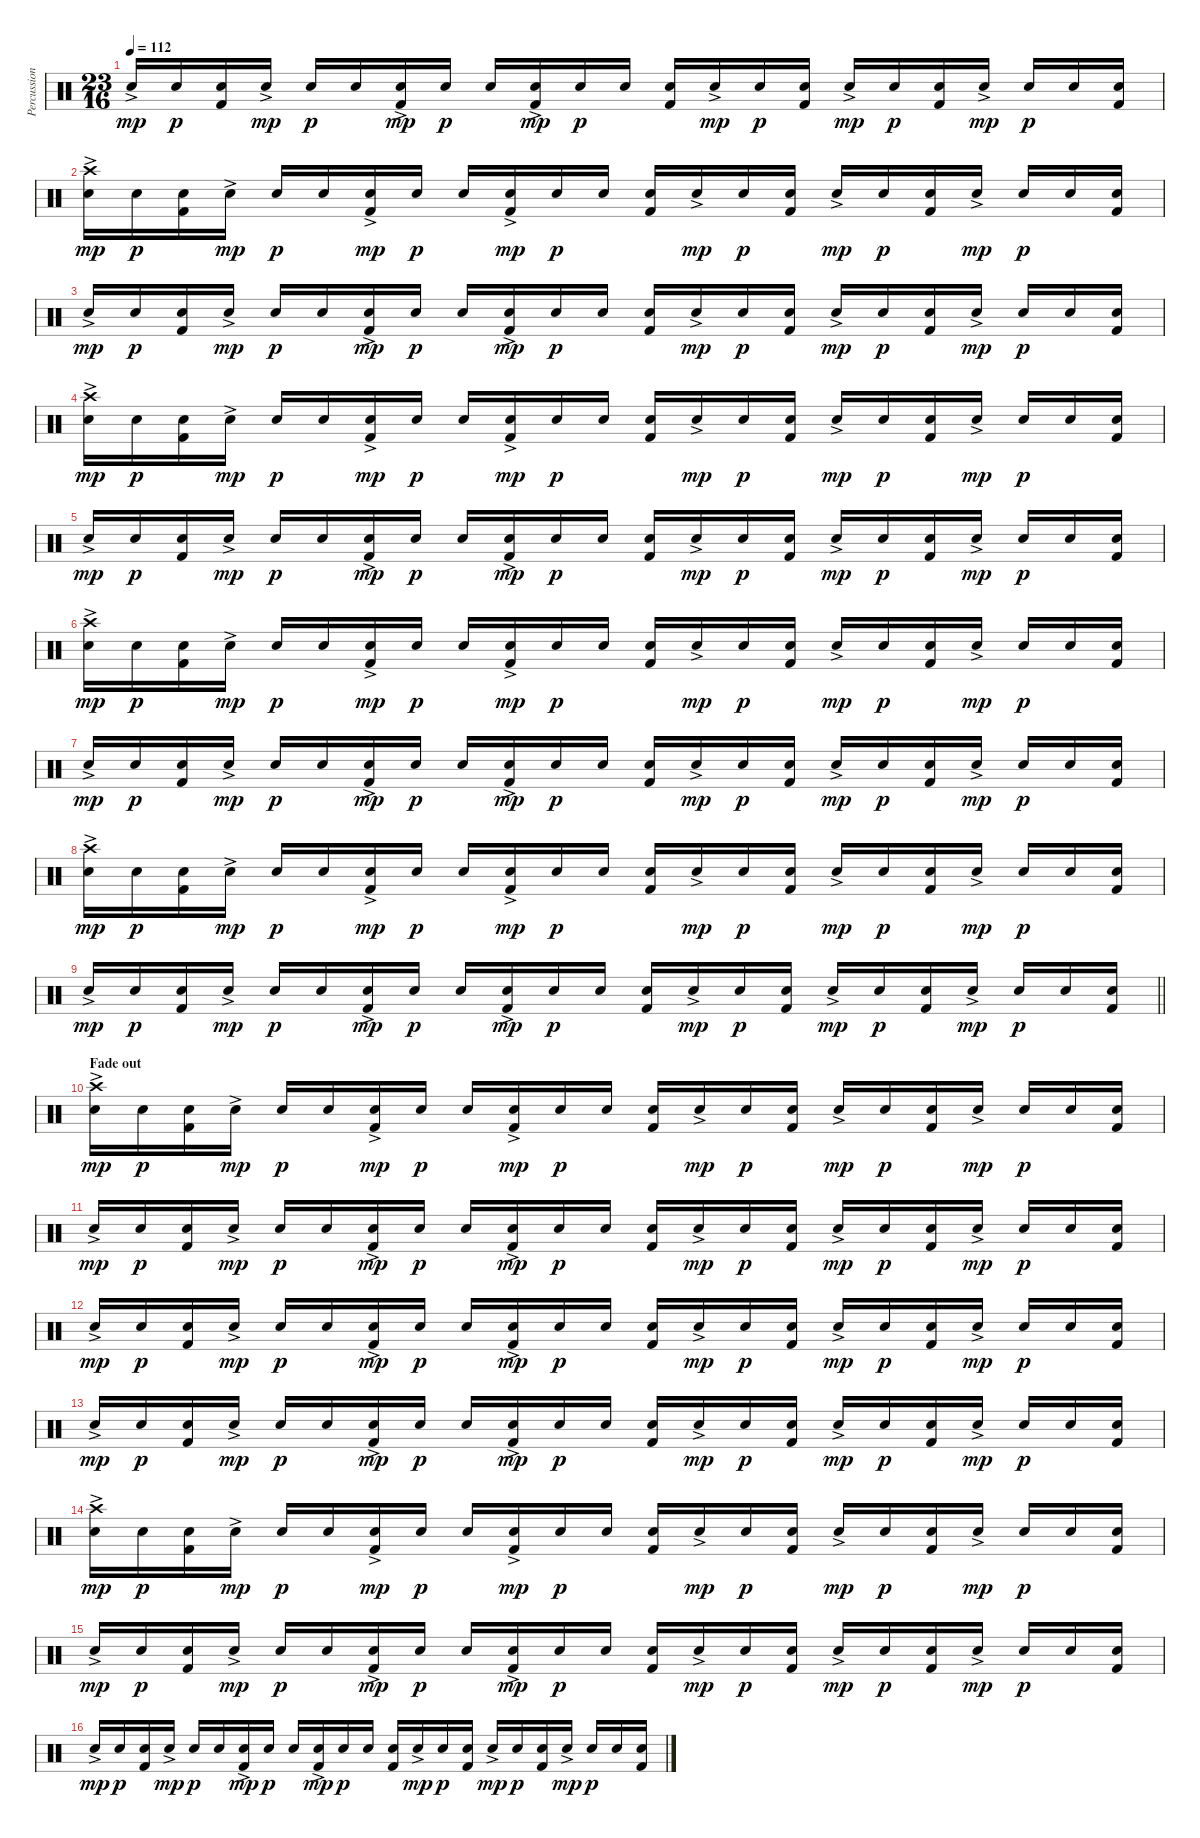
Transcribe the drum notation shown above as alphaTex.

\track ("Percussion" "Percussion") {instrument percussion}
\staff {score}
\articulation defaults
\ts (23 16)
\tempo 112
\clef neutral
\ks c "Snare (hit) 2"{ac}.16{dy mp} "Snare (hit) 2".16{dy p}
("Kick (hit) 2" "Snare (hit) 2").16 "Snare (hit) 2"{ac}.16{dy mp} "Snare (hit) 2".16{dy p} "Snare (hit) 2".16 ("Kick (hit) 2" "Snare (hit) 2"{ac}).16{dy mp} "Snare (hit) 2".16{dy p} "Snare (hit) 2".16 ("Kick (hit) 2" "Snare (hit) 2"{ac}).16{dy mp} "Snare (hit) 2".16{dy p} "Snare (hit) 2".16 ("Kick (hit) 2" "Snare (hit) 2").16 "Snare (hit) 2"{ac}.16{dy mp} "Snare (hit) 2".16{dy p} ("Kick (hit) 2" "Snare (hit) 2").16 "Snare (hit) 2"{ac}.16{dy mp} "Snare (hit) 2".16{dy p} ("Kick (hit) 2" "Snare (hit) 2").16 "Snare (hit) 2"{ac}.16{dy mp} "Snare (hit) 2".16{dy p} "Snare (hit) 2".16 ("Kick (hit) 2" "Snare (hit) 2").16 |
("Crash high (hit)" "Snare (hit) 2"{ac}).16{dy mp} "Snare (hit) 2".16{dy p} ("Kick (hit) 2" "Snare (hit) 2").16 "Snare (hit) 2"{ac}.16{dy mp} "Snare (hit) 2".16{dy p} "Snare (hit) 2".16 ("Kick (hit) 2" "Snare (hit) 2"{ac}).16{dy mp} "Snare (hit) 2".16{dy p} "Snare (hit) 2".16 ("Kick (hit) 2" "Snare (hit) 2"{ac}).16{dy mp} "Snare (hit) 2".16{dy p} "Snare (hit) 2".16 ("Kick (hit) 2" "Snare (hit) 2").16 "Snare (hit) 2"{ac}.16{dy mp} "Snare (hit) 2".16{dy p} ("Kick (hit) 2" "Snare (hit) 2").16 "Snare (hit) 2"{ac}.16{dy mp} "Snare (hit) 2".16{dy p} ("Kick (hit) 2" "Snare (hit) 2").16 "Snare (hit) 2"{ac}.16{dy mp} "Snare (hit) 2".16{dy p} "Snare (hit) 2".16 ("Kick (hit) 2" "Snare (hit) 2").16 |
"Snare (hit) 2"{ac}.16{dy mp} "Snare (hit) 2".16{dy p} ("Kick (hit) 2" "Snare (hit) 2").16 "Snare (hit) 2"{ac}.16{dy mp} "Snare (hit) 2".16{dy p} "Snare (hit) 2".16 ("Kick (hit) 2" "Snare (hit) 2"{ac}).16{dy mp} "Snare (hit) 2".16{dy p} "Snare (hit) 2".16 ("Kick (hit) 2" "Snare (hit) 2"{ac}).16{dy mp} "Snare (hit) 2".16{dy p} "Snare (hit) 2".16 ("Kick (hit) 2" "Snare (hit) 2").16 "Snare (hit) 2"{ac}.16{dy mp} "Snare (hit) 2".16{dy p} ("Kick (hit) 2" "Snare (hit) 2").16 "Snare (hit) 2"{ac}.16{dy mp} "Snare (hit) 2".16{dy p} ("Kick (hit) 2" "Snare (hit) 2").16 "Snare (hit) 2"{ac}.16{dy mp} "Snare (hit) 2".16{dy p} "Snare (hit) 2".16 ("Kick (hit) 2" "Snare (hit) 2").16 |
("Crash high (hit)" "Snare (hit) 2"{ac}).16{dy mp} "Snare (hit) 2".16{dy p} ("Kick (hit) 2" "Snare (hit) 2").16 "Snare (hit) 2"{ac}.16{dy mp} "Snare (hit) 2".16{dy p} "Snare (hit) 2".16 ("Kick (hit) 2" "Snare (hit) 2"{ac}).16{dy mp} "Snare (hit) 2".16{dy p} "Snare (hit) 2".16 ("Kick (hit) 2" "Snare (hit) 2"{ac}).16{dy mp} "Snare (hit) 2".16{dy p} "Snare (hit) 2".16 ("Kick (hit) 2" "Snare (hit) 2").16 "Snare (hit) 2"{ac}.16{dy mp} "Snare (hit) 2".16{dy p} ("Kick (hit) 2" "Snare (hit) 2").16 "Snare (hit) 2"{ac}.16{dy mp} "Snare (hit) 2".16{dy p} ("Kick (hit) 2" "Snare (hit) 2").16 "Snare (hit) 2"{ac}.16{dy mp} "Snare (hit) 2".16{dy p} "Snare (hit) 2".16 ("Kick (hit) 2" "Snare (hit) 2").16 |
"Snare (hit) 2"{ac}.16{dy mp} "Snare (hit) 2".16{dy p} ("Kick (hit) 2" "Snare (hit) 2").16 "Snare (hit) 2"{ac}.16{dy mp} "Snare (hit) 2".16{dy p} "Snare (hit) 2".16 ("Kick (hit) 2" "Snare (hit) 2"{ac}).16{dy mp} "Snare (hit) 2".16{dy p} "Snare (hit) 2".16 ("Kick (hit) 2" "Snare (hit) 2"{ac}).16{dy mp} "Snare (hit) 2".16{dy p} "Snare (hit) 2".16 ("Kick (hit) 2" "Snare (hit) 2").16 "Snare (hit) 2"{ac}.16{dy mp} "Snare (hit) 2".16{dy p} ("Kick (hit) 2" "Snare (hit) 2").16 "Snare (hit) 2"{ac}.16{dy mp} "Snare (hit) 2".16{dy p} ("Kick (hit) 2" "Snare (hit) 2").16 "Snare (hit) 2"{ac}.16{dy mp} "Snare (hit) 2".16{dy p} "Snare (hit) 2".16 ("Kick (hit) 2" "Snare (hit) 2").16 |
("Crash high (hit)" "Snare (hit) 2"{ac}).16{dy mp} "Snare (hit) 2".16{dy p} ("Kick (hit) 2" "Snare (hit) 2").16 "Snare (hit) 2"{ac}.16{dy mp} "Snare (hit) 2".16{dy p} "Snare (hit) 2".16 ("Kick (hit) 2" "Snare (hit) 2"{ac}).16{dy mp} "Snare (hit) 2".16{dy p} "Snare (hit) 2".16 ("Kick (hit) 2" "Snare (hit) 2"{ac}).16{dy mp} "Snare (hit) 2".16{dy p} "Snare (hit) 2".16 ("Kick (hit) 2" "Snare (hit) 2").16 "Snare (hit) 2"{ac}.16{dy mp} "Snare (hit) 2".16{dy p} ("Kick (hit) 2" "Snare (hit) 2").16 "Snare (hit) 2"{ac}.16{dy mp} "Snare (hit) 2".16{dy p} ("Kick (hit) 2" "Snare (hit) 2").16 "Snare (hit) 2"{ac}.16{dy mp} "Snare (hit) 2".16{dy p} "Snare (hit) 2".16 ("Kick (hit) 2" "Snare (hit) 2").16 |
"Snare (hit) 2"{ac}.16{dy mp} "Snare (hit) 2".16{dy p} ("Kick (hit) 2" "Snare (hit) 2").16 "Snare (hit) 2"{ac}.16{dy mp} "Snare (hit) 2".16{dy p} "Snare (hit) 2".16 ("Kick (hit) 2" "Snare (hit) 2"{ac}).16{dy mp} "Snare (hit) 2".16{dy p} "Snare (hit) 2".16 ("Kick (hit) 2" "Snare (hit) 2"{ac}).16{dy mp} "Snare (hit) 2".16{dy p} "Snare (hit) 2".16 ("Kick (hit) 2" "Snare (hit) 2").16 "Snare (hit) 2"{ac}.16{dy mp} "Snare (hit) 2".16{dy p} ("Kick (hit) 2" "Snare (hit) 2").16 "Snare (hit) 2"{ac}.16{dy mp} "Snare (hit) 2".16{dy p} ("Kick (hit) 2" "Snare (hit) 2").16 "Snare (hit) 2"{ac}.16{dy mp} "Snare (hit) 2".16{dy p} "Snare (hit) 2".16 ("Kick (hit) 2" "Snare (hit) 2").16 |
("Crash high (hit)" "Snare (hit) 2"{ac}).16{dy mp} "Snare (hit) 2".16{dy p} ("Kick (hit) 2" "Snare (hit) 2").16 "Snare (hit) 2"{ac}.16{dy mp} "Snare (hit) 2".16{dy p} "Snare (hit) 2".16 ("Kick (hit) 2" "Snare (hit) 2"{ac}).16{dy mp} "Snare (hit) 2".16{dy p} "Snare (hit) 2".16 ("Kick (hit) 2" "Snare (hit) 2"{ac}).16{dy mp} "Snare (hit) 2".16{dy p} "Snare (hit) 2".16 ("Kick (hit) 2" "Snare (hit) 2").16 "Snare (hit) 2"{ac}.16{dy mp} "Snare (hit) 2".16{dy p} ("Kick (hit) 2" "Snare (hit) 2").16 "Snare (hit) 2"{ac}.16{dy mp} "Snare (hit) 2".16{dy p} ("Kick (hit) 2" "Snare (hit) 2").16 "Snare (hit) 2"{ac}.16{dy mp} "Snare (hit) 2".16{dy p} "Snare (hit) 2".16 ("Kick (hit) 2" "Snare (hit) 2").16 |
\barLineRight lightlight "Snare (hit) 2"{ac}.16{dy mp} "Snare (hit) 2".16{dy p}
("Kick (hit) 2" "Snare (hit) 2").16 "Snare (hit) 2"{ac}.16{dy mp} "Snare (hit) 2".16{dy p} "Snare (hit) 2".16 ("Kick (hit) 2" "Snare (hit) 2"{ac}).16{dy mp} "Snare (hit) 2".16{dy p} "Snare (hit) 2".16 ("Kick (hit) 2" "Snare (hit) 2"{ac}).16{dy mp} "Snare (hit) 2".16{dy p} "Snare (hit) 2".16 ("Kick (hit) 2" "Snare (hit) 2").16 "Snare (hit) 2"{ac}.16{dy mp} "Snare (hit) 2".16{dy p} ("Kick (hit) 2" "Snare (hit) 2").16 "Snare (hit) 2"{ac}.16{dy mp} "Snare (hit) 2".16{dy p} ("Kick (hit) 2" "Snare (hit) 2").16 "Snare (hit) 2"{ac}.16{dy mp} "Snare (hit) 2".16{dy p} "Snare (hit) 2".16 ("Kick (hit) 2" "Snare (hit) 2").16 |
\section ("" "Fade out")
("Crash high (hit)" "Snare (hit) 2"{ac}).16{dy mp} "Snare (hit) 2".16{dy p} ("Kick (hit) 2" "Snare (hit) 2").16 "Snare (hit) 2"{ac}.16{dy mp} "Snare (hit) 2".16{dy p} "Snare (hit) 2".16 ("Kick (hit) 2" "Snare (hit) 2"{ac}).16{dy mp} "Snare (hit) 2".16{dy p} "Snare (hit) 2".16 ("Kick (hit) 2" "Snare (hit) 2"{ac}).16{dy mp} "Snare (hit) 2".16{dy p} "Snare (hit) 2".16 ("Kick (hit) 2" "Snare (hit) 2").16 "Snare (hit) 2"{ac}.16{dy mp} "Snare (hit) 2".16{dy p} ("Kick (hit) 2" "Snare (hit) 2").16 "Snare (hit) 2"{ac}.16{dy mp} "Snare (hit) 2".16{dy p} ("Kick (hit) 2" "Snare (hit) 2").16 "Snare (hit) 2"{ac}.16{dy mp} "Snare (hit) 2".16{dy p} "Snare (hit) 2".16 ("Kick (hit) 2" "Snare (hit) 2").16 |
"Snare (hit) 2"{ac}.16{dy mp} "Snare (hit) 2".16{dy p} ("Kick (hit) 2" "Snare (hit) 2").16 "Snare (hit) 2"{ac}.16{dy mp} "Snare (hit) 2".16{dy p} "Snare (hit) 2".16 ("Kick (hit) 2" "Snare (hit) 2"{ac}).16{dy mp} "Snare (hit) 2".16{dy p} "Snare (hit) 2".16 ("Kick (hit) 2" "Snare (hit) 2"{ac}).16{dy mp} "Snare (hit) 2".16{dy p} "Snare (hit) 2".16 ("Kick (hit) 2" "Snare (hit) 2").16 "Snare (hit) 2"{ac}.16{dy mp} "Snare (hit) 2".16{dy p} ("Kick (hit) 2" "Snare (hit) 2").16 "Snare (hit) 2"{ac}.16{dy mp} "Snare (hit) 2".16{dy p} ("Kick (hit) 2" "Snare (hit) 2").16 "Snare (hit) 2"{ac}.16{dy mp} "Snare (hit) 2".16{dy p} "Snare (hit) 2".16 ("Kick (hit) 2" "Snare (hit) 2").16 |
"Snare (hit) 2"{ac}.16{dy mp} "Snare (hit) 2".16{dy p} ("Kick (hit) 2" "Snare (hit) 2").16 "Snare (hit) 2"{ac}.16{dy mp} "Snare (hit) 2".16{dy p} "Snare (hit) 2".16 ("Kick (hit) 2" "Snare (hit) 2"{ac}).16{dy mp} "Snare (hit) 2".16{dy p} "Snare (hit) 2".16 ("Kick (hit) 2" "Snare (hit) 2"{ac}).16{dy mp} "Snare (hit) 2".16{dy p} "Snare (hit) 2".16 ("Kick (hit) 2" "Snare (hit) 2").16 "Snare (hit) 2"{ac}.16{dy mp} "Snare (hit) 2".16{dy p} ("Kick (hit) 2" "Snare (hit) 2").16 "Snare (hit) 2"{ac}.16{dy mp} "Snare (hit) 2".16{dy p} ("Kick (hit) 2" "Snare (hit) 2").16 "Snare (hit) 2"{ac}.16{dy mp} "Snare (hit) 2".16{dy p} "Snare (hit) 2".16 ("Kick (hit) 2" "Snare (hit) 2").16 |
"Snare (hit) 2"{ac}.16{dy mp} "Snare (hit) 2".16{dy p} ("Kick (hit) 2" "Snare (hit) 2").16 "Snare (hit) 2"{ac}.16{dy mp} "Snare (hit) 2".16{dy p} "Snare (hit) 2".16 ("Kick (hit) 2" "Snare (hit) 2"{ac}).16{dy mp} "Snare (hit) 2".16{dy p} "Snare (hit) 2".16 ("Kick (hit) 2" "Snare (hit) 2"{ac}).16{dy mp} "Snare (hit) 2".16{dy p} "Snare (hit) 2".16 ("Kick (hit) 2" "Snare (hit) 2").16 "Snare (hit) 2"{ac}.16{dy mp} "Snare (hit) 2".16{dy p} ("Kick (hit) 2" "Snare (hit) 2").16 "Snare (hit) 2"{ac}.16{dy mp} "Snare (hit) 2".16{dy p} ("Kick (hit) 2" "Snare (hit) 2").16 "Snare (hit) 2"{ac}.16{dy mp} "Snare (hit) 2".16{dy p} "Snare (hit) 2".16 ("Kick (hit) 2" "Snare (hit) 2").16 |
("Crash high (hit)" "Snare (hit) 2"{ac}).16{dy mp} "Snare (hit) 2".16{dy p} ("Kick (hit) 2" "Snare (hit) 2").16 "Snare (hit) 2"{ac}.16{dy mp} "Snare (hit) 2".16{dy p} "Snare (hit) 2".16 ("Kick (hit) 2" "Snare (hit) 2"{ac}).16{dy mp} "Snare (hit) 2".16{dy p} "Snare (hit) 2".16 ("Kick (hit) 2" "Snare (hit) 2"{ac}).16{dy mp} "Snare (hit) 2".16{dy p} "Snare (hit) 2".16 ("Kick (hit) 2" "Snare (hit) 2").16 "Snare (hit) 2"{ac}.16{dy mp} "Snare (hit) 2".16{dy p} ("Kick (hit) 2" "Snare (hit) 2").16 "Snare (hit) 2"{ac}.16{dy mp} "Snare (hit) 2".16{dy p} ("Kick (hit) 2" "Snare (hit) 2").16 "Snare (hit) 2"{ac}.16{dy mp} "Snare (hit) 2".16{dy p} "Snare (hit) 2".16 ("Kick (hit) 2" "Snare (hit) 2").16 |
"Snare (hit) 2"{ac}.16{dy mp} "Snare (hit) 2".16{dy p} ("Kick (hit) 2" "Snare (hit) 2").16 "Snare (hit) 2"{ac}.16{dy mp} "Snare (hit) 2".16{dy p} "Snare (hit) 2".16 ("Kick (hit) 2" "Snare (hit) 2"{ac}).16{dy mp} "Snare (hit) 2".16{dy p} "Snare (hit) 2".16 ("Kick (hit) 2" "Snare (hit) 2"{ac}).16{dy mp} "Snare (hit) 2".16{dy p} "Snare (hit) 2".16 ("Kick (hit) 2" "Snare (hit) 2").16 "Snare (hit) 2"{ac}.16{dy mp} "Snare (hit) 2".16{dy p} ("Kick (hit) 2" "Snare (hit) 2").16 "Snare (hit) 2"{ac}.16{dy mp} "Snare (hit) 2".16{dy p} ("Kick (hit) 2" "Snare (hit) 2").16 "Snare (hit) 2"{ac}.16{dy mp} "Snare (hit) 2".16{dy p} "Snare (hit) 2".16 ("Kick (hit) 2" "Snare (hit) 2").16 |
"Snare (hit) 2"{ac}.16{dy mp} "Snare (hit) 2".16{dy p} ("Kick (hit) 2" "Snare (hit) 2").16 "Snare (hit) 2"{ac}.16{dy mp} "Snare (hit) 2".16{dy p} "Snare (hit) 2".16 ("Kick (hit) 2" "Snare (hit) 2"{ac}).16{dy mp} "Snare (hit) 2".16{dy p} "Snare (hit) 2".16 ("Kick (hit) 2" "Snare (hit) 2"{ac}).16{dy mp} "Snare (hit) 2".16{dy p} "Snare (hit) 2".16 ("Kick (hit) 2" "Snare (hit) 2").16 "Snare (hit) 2"{ac}.16{dy mp} "Snare (hit) 2".16{dy p} ("Kick (hit) 2" "Snare (hit) 2").16 "Snare (hit) 2"{ac}.16{dy mp} "Snare (hit) 2".16{dy p} ("Kick (hit) 2" "Snare (hit) 2").16 "Snare (hit) 2"{ac}.16{dy mp} "Snare (hit) 2".16{dy p} "Snare (hit) 2".16 ("Kick (hit) 2" "Snare (hit) 2").16
